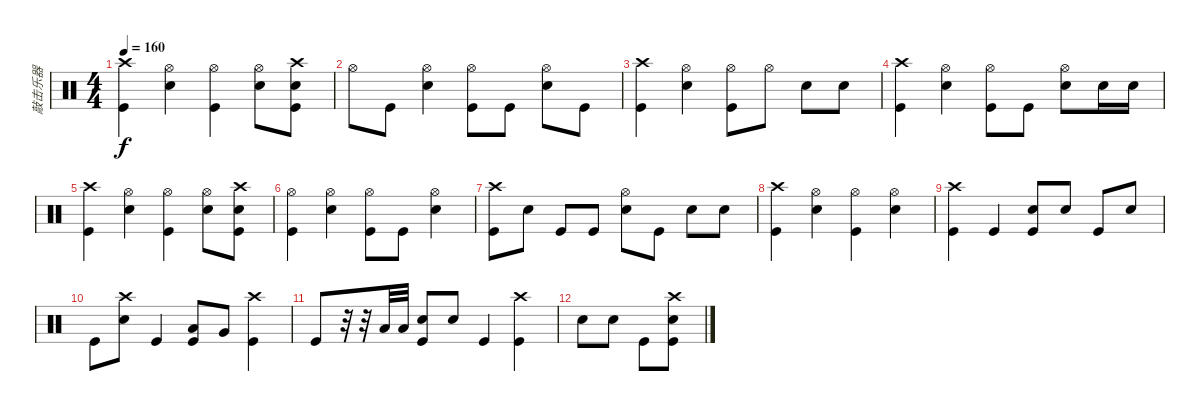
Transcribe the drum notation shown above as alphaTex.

\track ("敲击乐器" "敲击乐器") {instrument percussion}
\staff {score}
\articulation defaults
\ts (4 4)
\tempo 160
\clef neutral
\ks c
("Crash high (hit)" "Kick (hit)").4{dy f} ("Hi-Hat (open)" "Electric Snare (hit)").4 ("Hi-Hat (open)" "Kick (hit)").4 ("Hi-Hat (open)" "Electric Snare (hit)").8 ("Crash high (hit)" "Electric Snare (hit)" "Kick (hit)").8 |
"Hi-Hat (open)".8 "Kick (hit)".8 ("Hi-Hat (open)" "Electric Snare (hit)").4 ("Hi-Hat (open)" "Kick (hit)").8 "Kick (hit)".8 ("Hi-Hat (open)" "Electric Snare (hit)").8 "Kick (hit)".8 |
("Crash high (hit)" "Kick (hit)").4 ("Hi-Hat (open)" "Electric Snare (hit)").4 ("Hi-Hat (open)" "Kick (hit)").8 "Hi-Hat (open)".8 "Electric Snare (hit)".8 "Electric Snare (hit)".8 |
("Crash high (hit)" "Kick (hit)").4 ("Hi-Hat (open)" "Electric Snare (hit)").4 ("Hi-Hat (open)" "Kick (hit)").8 "Kick (hit)".8 ("Hi-Hat (open)" "Electric Snare (hit)").8 "Electric Snare (hit)".16 "Electric Snare (hit)".16 |
("Crash high (hit)" "Kick (hit)").4 ("Hi-Hat (open)" "Electric Snare (hit)").4 ("Hi-Hat (open)" "Kick (hit)").4 ("Hi-Hat (open)" "Electric Snare (hit)").8 ("Crash high (hit)" "Electric Snare (hit)" "Kick (hit)").8 |
("Hi-Hat (open)" "Kick (hit)").4 ("Hi-Hat (open)" "Electric Snare (hit)").4 ("Hi-Hat (open)" "Kick (hit)").8 "Kick (hit)".8 ("Hi-Hat (open)" "Electric Snare (hit)").4 |
("Crash high (hit)" "Kick (hit)").8 "Electric Snare (hit)".8 "Kick (hit)".8 "Kick (hit)".8 ("Hi-Hat (open)" "Electric Snare (hit)").8 "Kick (hit)".8 "Electric Snare (hit)".8 "Electric Snare (hit)".8 |
("Crash high (hit)" "Kick (hit)").4 ("Hi-Hat (open)" "Electric Snare (hit)").4 ("Hi-Hat (open)" "Kick (hit)").4 ("Hi-Hat (open)" "Electric Snare (hit)").4 |
("Crash high (hit)" "Kick (hit)").4{volume 10} "Kick (hit)".4 ("Electric Snare (hit)" "Kick (hit)").8 "Electric Snare (hit)".8 "Kick (hit)".8 "Electric Snare (hit)".8 |
"Kick (hit)".8 ("Crash high (hit)" "Electric Snare (hit)").8 "Kick (hit)".4 ("Low Tom (hit)" "Kick (hit)").8 "Very Low Tom (hit)".8 ("Crash high (hit)" "Kick (hit)").4 |
"Kick (hit)".8 r.32 r.32 "Low Tom (hit)".32 "Low Tom (hit)".32 ("Electric Snare (hit)" "Kick (hit)").8 "Electric Snare (hit)".8 "Kick (hit)".4 ("Crash high (hit)" "Kick (hit)").4 |
"Electric Snare (hit)".8 "Electric Snare (hit)".8 "Kick (hit)".8 ("Crash high (hit)" "Electric Snare (hit)" "Kick (hit)").8
